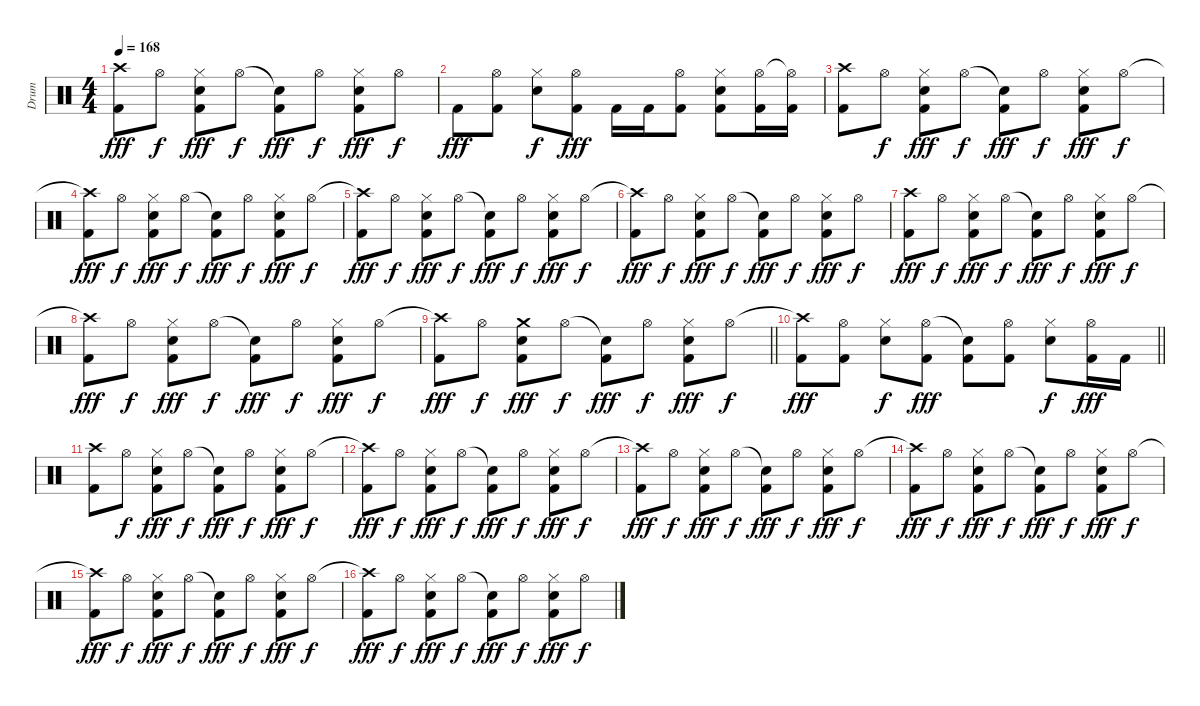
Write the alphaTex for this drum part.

\track ("Drum" "Drum") {instrument percussion}
\staff {score}
\articulation defaults
\ts (4 4)
\tempo 168
\clef neutral
\ks c
("Crash high (hit)"{t} "Kick (hit) 2").8{dy fff} "Hi-Hat (open)".8{dy f} ("Hi-Hat (closed)" "Snare (hit) 2" "Kick (hit) 2").8{dy fff} "Hi-Hat (open)".8{dy f} ("Snare (hit)"{t} "Kick (hit) 2").8{dy fff} "Hi-Hat (open)".8{dy f} ("Hi-Hat (closed)" "Snare (hit) 2" "Kick (hit) 2").8{dy fff} "Hi-Hat (open)".8{dy f} |
"Kick (hit) 2".8{dy fff} ("Hi-Hat (open)" "Kick (hit) 2").8 ("Hi-Hat (closed)" "Snare (hit) 2").8{dy f} ("Hi-Hat (open)" "Kick (hit) 2").8{dy fff} "Kick (hit) 2".16 "Kick (hit) 2".16 ("Hi-Hat (open)" "Kick (hit) 2").8 ("Hi-Hat (closed)" "Snare (hit) 2" "Kick (hit) 2").8 ("Hi-Hat (open)" "Kick (hit) 2").16 ("Hi-Hat (open)"{t} "Kick (hit) 2").16 |
("Crash high (hit)" "Kick (hit) 2").8 "Hi-Hat (open)".8{dy f} ("Hi-Hat (closed)" "Snare (hit) 2" "Kick (hit) 2").8{dy fff} "Hi-Hat (open)".8{dy f} ("Snare (hit)"{t} "Kick (hit) 2").8{dy fff} "Hi-Hat (open)".8{dy f} ("Hi-Hat (closed)" "Snare (hit) 2" "Kick (hit) 2").8{dy fff} "Hi-Hat (open)".8{dy f} |
("Crash high (hit)"{t} "Kick (hit) 2").8{dy fff} "Hi-Hat (open)".8{dy f} ("Hi-Hat (closed)" "Snare (hit) 2" "Kick (hit) 2").8{dy fff} "Hi-Hat (open)".8{dy f} ("Snare (hit)"{t} "Kick (hit) 2").8{dy fff} "Hi-Hat (open)".8{dy f} ("Hi-Hat (closed)" "Snare (hit) 2" "Kick (hit) 2").8{dy fff} "Hi-Hat (open)".8{dy f} |
("Crash high (hit)"{t} "Kick (hit) 2").8{dy fff} "Hi-Hat (open)".8{dy f} ("Hi-Hat (closed)" "Snare (hit) 2" "Kick (hit) 2").8{dy fff} "Hi-Hat (open)".8{dy f} ("Snare (hit)"{t} "Kick (hit) 2").8{dy fff} "Hi-Hat (open)".8{dy f} ("Hi-Hat (closed)" "Snare (hit) 2" "Kick (hit) 2").8{dy fff} "Hi-Hat (open)".8{dy f} |
("Crash high (hit)"{t} "Kick (hit) 2").8{dy fff} "Hi-Hat (open)".8{dy f} ("Hi-Hat (closed)" "Snare (hit) 2" "Kick (hit) 2").8{dy fff} "Hi-Hat (open)".8{dy f} ("Snare (hit)"{t} "Kick (hit) 2").8{dy fff} "Hi-Hat (open)".8{dy f} ("Hi-Hat (closed)" "Snare (hit) 2" "Kick (hit) 2").8{dy fff} "Hi-Hat (open)".8{dy f} |
("Crash high (hit)" "Kick (hit) 2").8{dy fff} "Hi-Hat (open)".8{dy f} ("Hi-Hat (closed)" "Snare (hit) 2" "Kick (hit) 2").8{dy fff} "Hi-Hat (open)".8{dy f} ("Snare (hit)"{t} "Kick (hit) 2").8{dy fff} "Hi-Hat (open)".8{dy f} ("Hi-Hat (closed)" "Snare (hit) 2" "Kick (hit) 2").8{dy fff} "Hi-Hat (open)".8{dy f} |
("Crash high (hit)"{t} "Kick (hit) 2").8{dy fff} "Hi-Hat (open)".8{dy f} ("Hi-Hat (closed)" "Snare (hit) 2" "Kick (hit) 2").8{dy fff} "Hi-Hat (open)".8{dy f} ("Snare (hit)"{t} "Kick (hit) 2").8{dy fff} "Hi-Hat (open)".8{dy f} ("Hi-Hat (closed)" "Snare (hit) 2" "Kick (hit) 2").8{dy fff} "Hi-Hat (open)".8{dy f} |
\barLineRight lightlight
("Crash high (hit)"{t} "Kick (hit) 2").8{dy fff} "Hi-Hat (open)".8{dy f} ("Crash medium (hit)" "Snare (hit) 2" "Kick (hit) 2").8{dy fff} "Hi-Hat (open)".8{dy f} ("Snare (hit)"{t} "Kick (hit) 2").8{dy fff} "Hi-Hat (open)".8{dy f} ("Hi-Hat (closed)" "Snare (hit) 2" "Kick (hit) 2").8{dy fff} "Hi-Hat (open)".8{dy f} |
\barLineRight lightlight
("Crash high (hit)"{t} "Kick (hit) 2").8{dy fff} ("Hi-Hat (open)" "Kick (hit) 2").8 ("Hi-Hat (closed)" "Snare (hit) 2").8{dy f} ("Hi-Hat (open)" "Kick (hit) 2").8{dy fff} ("Snare (hit)"{t} "Kick (hit) 2").8 ("Hi-Hat (open)" "Kick (hit) 2").8 ("Hi-Hat (closed)" "Snare (hit) 2").8{dy f} ("Hi-Hat (open)" "Kick (hit) 2").16{dy fff} "Kick (hit) 2".16 |
("Crash high (hit)" "Kick (hit) 2").8 "Hi-Hat (open)".8{dy f} ("Hi-Hat (closed)" "Snare (hit) 2" "Kick (hit) 2").8{dy fff} "Hi-Hat (open)".8{dy f} ("Snare (hit)"{t} "Kick (hit) 2").8{dy fff} "Hi-Hat (open)".8{dy f} ("Hi-Hat (closed)" "Snare (hit) 2" "Kick (hit) 2").8{dy fff} "Hi-Hat (open)".8{dy f} |
("Crash high (hit)"{t} "Kick (hit) 2").8{dy fff} "Hi-Hat (open)".8{dy f} ("Hi-Hat (closed)" "Snare (hit) 2" "Kick (hit) 2").8{dy fff} "Hi-Hat (open)".8{dy f} ("Snare (hit)"{t} "Kick (hit) 2").8{dy fff} "Hi-Hat (open)".8{dy f} ("Hi-Hat (closed)" "Snare (hit) 2" "Kick (hit) 2").8{dy fff} "Hi-Hat (open)".8{dy f} |
("Crash high (hit)"{t} "Kick (hit) 2").8{dy fff} "Hi-Hat (open)".8{dy f} ("Hi-Hat (closed)" "Snare (hit) 2" "Kick (hit) 2").8{dy fff} "Hi-Hat (open)".8{dy f} ("Snare (hit)"{t} "Kick (hit) 2").8{dy fff} "Hi-Hat (open)".8{dy f} ("Hi-Hat (closed)" "Snare (hit) 2" "Kick (hit) 2").8{dy fff} "Hi-Hat (open)".8{dy f} |
("Crash high (hit)"{t} "Kick (hit) 2").8{dy fff} "Hi-Hat (open)".8{dy f} ("Hi-Hat (closed)" "Snare (hit) 2" "Kick (hit) 2").8{dy fff} "Hi-Hat (open)".8{dy f} ("Snare (hit)"{t} "Kick (hit) 2").8{dy fff} "Hi-Hat (open)".8{dy f} ("Hi-Hat (closed)" "Snare (hit) 2" "Kick (hit) 2").8{dy fff} "Hi-Hat (open)".8{dy f} |
("Crash high (hit)"{t} "Kick (hit) 2").8{dy fff} "Hi-Hat (open)".8{dy f} ("Hi-Hat (closed)" "Snare (hit) 2" "Kick (hit) 2").8{dy fff} "Hi-Hat (open)".8{dy f} ("Snare (hit)"{t} "Kick (hit) 2").8{dy fff} "Hi-Hat (open)".8{dy f} ("Hi-Hat (closed)" "Snare (hit) 2" "Kick (hit) 2").8{dy fff} "Hi-Hat (open)".8{dy f} |
("Crash high (hit)"{t} "Kick (hit) 2").8{dy fff} "Hi-Hat (open)".8{dy f} ("Hi-Hat (closed)" "Snare (hit) 2" "Kick (hit) 2").8{dy fff} "Hi-Hat (open)".8{dy f} ("Snare (hit)"{t} "Kick (hit) 2").8{dy fff} "Hi-Hat (open)".8{dy f} ("Hi-Hat (closed)" "Snare (hit) 2" "Kick (hit) 2").8{dy fff} "Hi-Hat (open)".8{dy f}
